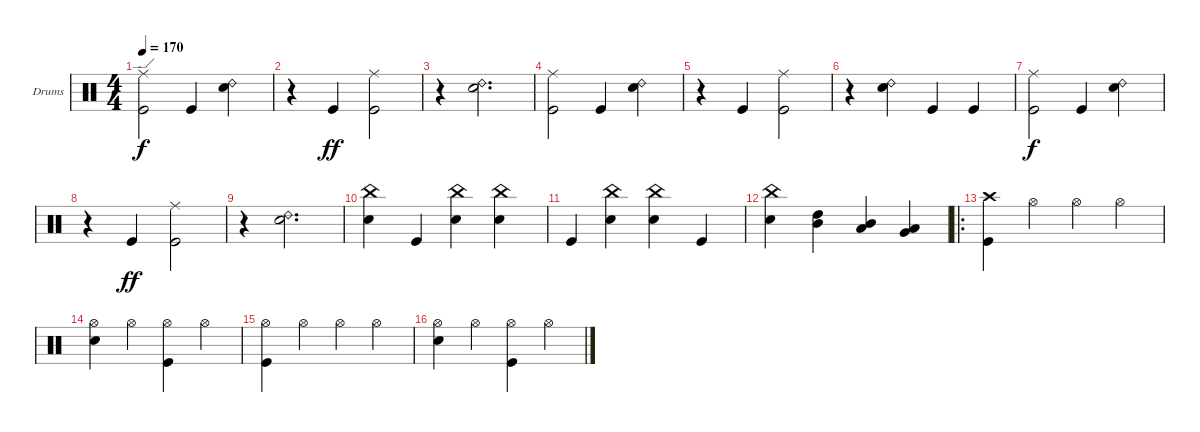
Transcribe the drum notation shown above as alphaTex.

\defaultSystemsLayout 4
\bracketExtendMode groupsimilarinstruments
\firstSystemTrackNameOrientation horizontal
\otherSystemsTrackNameOrientation horizontal
\track ("Inferno" "Drums") {instrument percussion}
\staff {score}
\articulation defaults
\ts (4 4)
\tempo 170
\clef neutral
\ks c
("Kick (hit)" "Ride (edge)").2{dy f} "Kick (hit)".4 ("Snare (hit) 2" "Ride (bell) 2").4 |
r.4 "Kick (hit)".4{dy ff} ("Kick (hit)" "Ride (middle)").2 |
r.4 ("Snare (hit) 2" "Ride (bell) 2").2{d} |
("Kick (hit)" "Ride (middle)").2 "Kick (hit)".4 ("Snare (hit) 2" "Ride (bell) 2").4 |
r.4 "Kick (hit)".4 ("Kick (hit)" "Ride (middle)").2 |
r.4 ("Snare (hit) 2" "Ride (bell) 2").4 "Kick (hit)".4 "Kick (hit)".4 |
("Kick (hit)" "Ride (middle)").2{dy f} "Kick (hit)".4 ("Snare (hit) 2" "Ride (bell) 2").4 |
r.4 "Kick (hit)".4{dy ff} ("Kick (hit)" "Ride (middle)").2 |
r.4 ("Snare (hit) 2" "Ride (bell) 2").2{d} |
("Snare (hit) 2" "China (hit)").4 "Kick (hit)".4 ("Snare (hit) 2" "China (hit)").4 ("Snare (hit) 2" "China (hit)").4 |
"Kick (hit)".4 ("Snare (hit) 2" "China (hit)").4 ("Snare (hit) 2" "China (hit)").4 "Kick (hit)".4 |
("Snare (hit) 2" "China (hit)").4 ("High Tom (hit)" "Mid Tom (hit)").4 ("Mid Tom (hit)" "Low Tom (hit)").4 ("Low Tom (hit)" "Very Low Tom (hit)").4 |
\ro
("Kick (hit)" "Crash high (hit)").4 "Hi-Hat (open)".4 "Hi-Hat (open)".4 "Hi-Hat (open)".4 |
("Hi-Hat (open)" "Snare (hit) 2").4 "Hi-Hat (open)".4 ("Hi-Hat (open)" "Kick (hit)").4 "Hi-Hat (open)".4 |
("Hi-Hat (open)" "Kick (hit)").4 "Hi-Hat (open)".4 "Hi-Hat (open)".4 "Hi-Hat (open)".4 |
("Hi-Hat (open)" "Snare (hit) 2").4 "Hi-Hat (open)".4 ("Hi-Hat (open)" "Kick (hit)").4 "Hi-Hat (open)".4
